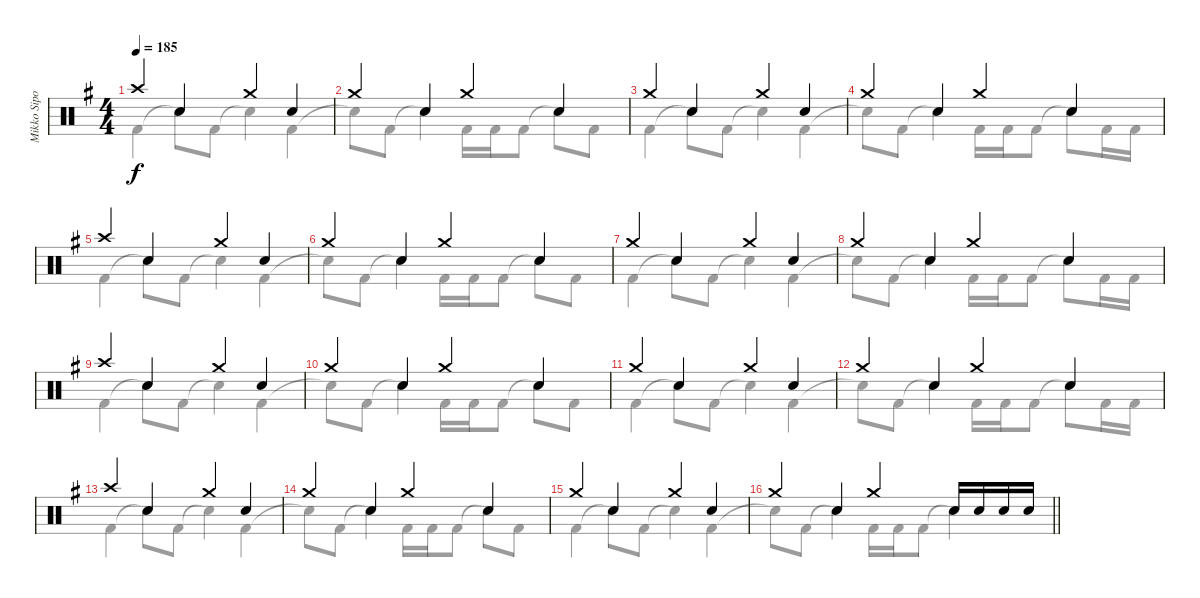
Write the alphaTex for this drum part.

\track ("Mikko Sipola (drums)" "Mikko Sipo") {instrument percussion}
\staff {score}
\articulation defaults
\voice
\ts (4 4)
\tempo 185
\clef neutral
\ks eminor "Crash high (hit)".4{dy f} "Electric Snare (hit)".4 "Crash medium (hit)".4 "Electric Snare (hit)".4
|
"Crash medium (hit)".4 "Electric Snare (hit)".4 "Crash medium (hit)".4 "Electric Snare (hit)".4 |
"Crash medium (hit)".4 "Electric Snare (hit)".4 "Crash medium (hit)".4 "Electric Snare (hit)".4 |
"Crash medium (hit)".4 "Electric Snare (hit)".4 "Crash medium (hit)".4 "Electric Snare (hit)".4 |
"Crash high (hit)".4 "Electric Snare (hit)".4 "Crash medium (hit)".4 "Electric Snare (hit)".4 |
"Crash medium (hit)".4 "Electric Snare (hit)".4 "Crash medium (hit)".4 "Electric Snare (hit)".4 |
"Crash medium (hit)".4 "Electric Snare (hit)".4 "Crash medium (hit)".4 "Electric Snare (hit)".4 |
"Crash medium (hit)".4 "Electric Snare (hit)".4 "Crash medium (hit)".4 "Electric Snare (hit)".4 |
"Crash high (hit)".4 "Electric Snare (hit)".4 "Crash medium (hit)".4 "Electric Snare (hit)".4 |
"Crash medium (hit)".4 "Electric Snare (hit)".4 "Crash medium (hit)".4 "Electric Snare (hit)".4 |
"Crash medium (hit)".4 "Electric Snare (hit)".4 "Crash medium (hit)".4 "Electric Snare (hit)".4 |
"Crash medium (hit)".4 "Electric Snare (hit)".4 "Crash medium (hit)".4 "Electric Snare (hit)".4 |
"Crash high (hit)".4 "Electric Snare (hit)".4 "Crash medium (hit)".4 "Electric Snare (hit)".4 |
"Crash medium (hit)".4 "Electric Snare (hit)".4 "Crash medium (hit)".4 "Electric Snare (hit)".4 |
"Crash medium (hit)".4 "Electric Snare (hit)".4 "Crash medium (hit)".4 "Electric Snare (hit)".4 |
\barLineRight lightlight "Crash medium (hit)".4 "Electric Snare (hit)".4 "Crash medium (hit)".4 "Electric Snare (hit)".16 "Electric Snare (hit)".16 "Electric Snare (hit)".16 "Electric Snare (hit)".16
\voice
\clef neutral
\ottava regular
\simile none
\ks eminor "Kick (hit) 2".4{dy f} "Snare (hit)"{t}.8 "Kick (hit) 2".8 "Snare (hit)"{t}.4 "Kick (hit) 2".4
|
"Snare (hit)"{t}.8 "Kick (hit) 2".8 "Snare (hit)"{t}.4 "Kick (hit) 2".16 "Kick (hit) 2".16 "Kick (hit) 2".8 "Snare (hit)"{t}.8 "Kick (hit) 2".8 |
"Kick (hit) 2".4 "Snare (hit)"{t}.8 "Kick (hit) 2".8 "Snare (hit)"{t}.4 "Kick (hit) 2".4 |
"Snare (hit)"{t}.8 "Kick (hit) 2".8 "Snare (hit)"{t}.4 "Kick (hit) 2".16 "Kick (hit) 2".16 "Kick (hit) 2".8 "Snare (hit)"{t}.8 "Kick (hit) 2".16 "Kick (hit) 2".16 |
"Kick (hit) 2".4 "Snare (hit)"{t}.8 "Kick (hit) 2".8 "Snare (hit)"{t}.4 "Kick (hit) 2".4 |
"Snare (hit)"{t}.8 "Kick (hit) 2".8 "Snare (hit)"{t}.4 "Kick (hit) 2".16 "Kick (hit) 2".16 "Kick (hit) 2".8 "Snare (hit)"{t}.8 "Kick (hit) 2".8 |
"Kick (hit) 2".4 "Snare (hit)"{t}.8 "Kick (hit) 2".8 "Snare (hit)"{t}.4 "Kick (hit) 2".4 |
"Snare (hit)"{t}.8 "Kick (hit) 2".8 "Snare (hit)"{t}.4 "Kick (hit) 2".16 "Kick (hit) 2".16 "Kick (hit) 2".8 "Snare (hit)"{t}.8 "Kick (hit) 2".16 "Kick (hit) 2".16 |
"Kick (hit) 2".4 "Snare (hit)"{t}.8 "Kick (hit) 2".8 "Snare (hit)"{t}.4 "Kick (hit) 2".4 |
"Snare (hit)"{t}.8 "Kick (hit) 2".8 "Snare (hit)"{t}.4 "Kick (hit) 2".16 "Kick (hit) 2".16 "Kick (hit) 2".8 "Snare (hit)"{t}.8 "Kick (hit) 2".8 |
"Kick (hit) 2".4 "Snare (hit)"{t}.8 "Kick (hit) 2".8 "Snare (hit)"{t}.4 "Kick (hit) 2".4 |
"Snare (hit)"{t}.8 "Kick (hit) 2".8 "Snare (hit)"{t}.4 "Kick (hit) 2".16 "Kick (hit) 2".16 "Kick (hit) 2".8 "Snare (hit)"{t}.8 "Kick (hit) 2".16 "Kick (hit) 2".16 |
"Kick (hit) 2".4 "Snare (hit)"{t}.8 "Kick (hit) 2".8 "Snare (hit)"{t}.4 "Kick (hit) 2".4 |
"Snare (hit)"{t}.8 "Kick (hit) 2".8 "Snare (hit)"{t}.4 "Kick (hit) 2".16 "Kick (hit) 2".16 "Kick (hit) 2".8 "Snare (hit)"{t}.8 "Kick (hit) 2".8 |
"Kick (hit) 2".4 "Snare (hit)"{t}.8 "Kick (hit) 2".8 "Snare (hit)"{t}.4 "Kick (hit) 2".4 |
\barLineRight lightlight "Snare (hit)"{t}.8 "Kick (hit) 2".8 "Snare (hit)"{t}.4 "Kick (hit) 2".16 "Kick (hit) 2".16 "Kick (hit) 2".8 "Snare (hit)"{t}.4
